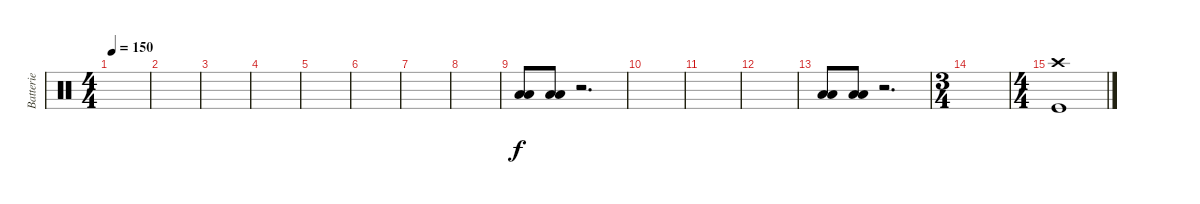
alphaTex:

\track ("Batterie" "Batterie") {instrument percussion}
\staff {score}
\articulation defaults
\ts (4 4)
\tempo 150
\clef neutral
\ks c
|
|
|
|
|
|
|
|
("Low Tom (hit)" "Low Floor Tom (hit)").8 ("Low Tom (hit)" "Low Floor Tom (hit)").8 r.2{d} |
|
|
|
("Low Tom (hit)" "Low Floor Tom (hit)").8 ("Low Tom (hit)" "Low Floor Tom (hit)").8 r.2{d} |
\ts (3 4)
|
\ts (4 4)
("Crash high (hit)" "Kick (hit)").1
